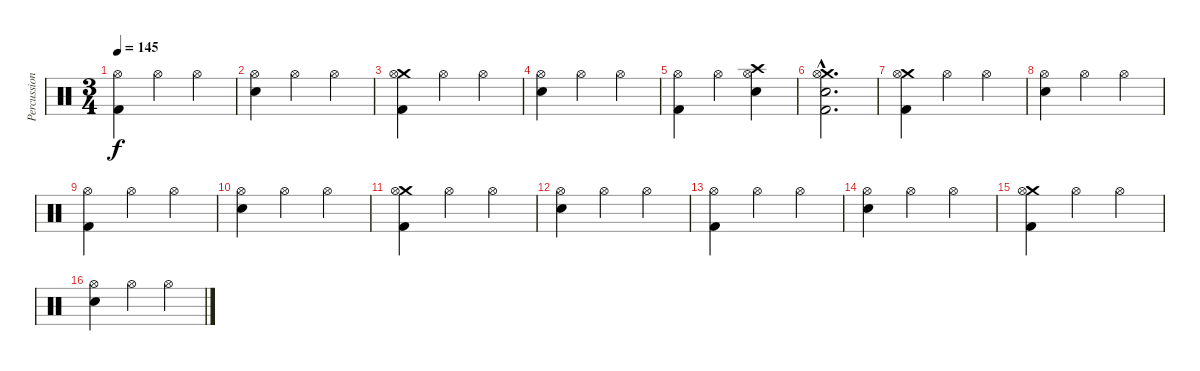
\track ("Percussion" "Percussion") {instrument percussion}
\staff {score}
\articulation defaults
\ts (3 4)
\tempo 145
\clef neutral
\ks c
("Hi-Hat (open)" "Kick (hit) 2").4{dy f} "Hi-Hat (open)".4 "Hi-Hat (open)".4 |
("Hi-Hat (open)" "Electric Snare (hit)").4 "Hi-Hat (open)".4 "Hi-Hat (open)".4 |
("Crash medium (hit)" "Hi-Hat (open)" "Kick (hit) 2").4 "Hi-Hat (open)".4 "Hi-Hat (open)".4 |
("Hi-Hat (open)" "Electric Snare (hit)").4 "Hi-Hat (open)".4 "Hi-Hat (open)".4 |
("Hi-Hat (open)" "Kick (hit) 2").4 "Hi-Hat (open)".4 ("Crash high (hit)" "Hi-Hat (open)" "Electric Snare (hit)").4 |
("Crash medium (hit)"{hac} "Hi-Hat (open)"{hac} "Electric Snare (hit)"{hac} "Kick (hit) 2"{hac}).2{d} |
("Crash medium (hit)" "Hi-Hat (open)" "Kick (hit) 2").4 "Hi-Hat (open)".4 "Hi-Hat (open)".4 |
("Hi-Hat (open)" "Electric Snare (hit)").4 "Hi-Hat (open)".4 "Hi-Hat (open)".4 |
("Hi-Hat (open)" "Kick (hit) 2").4 "Hi-Hat (open)".4 "Hi-Hat (open)".4 |
("Hi-Hat (open)" "Electric Snare (hit)").4 "Hi-Hat (open)".4 "Hi-Hat (open)".4 |
("Crash medium (hit)" "Hi-Hat (open)" "Kick (hit) 2").4 "Hi-Hat (open)".4 "Hi-Hat (open)".4 |
("Hi-Hat (open)" "Electric Snare (hit)").4 "Hi-Hat (open)".4 "Hi-Hat (open)".4 |
("Hi-Hat (open)" "Kick (hit) 2").4 "Hi-Hat (open)".4 "Hi-Hat (open)".4 |
("Hi-Hat (open)" "Electric Snare (hit)").4 "Hi-Hat (open)".4 "Hi-Hat (open)".4 |
("Crash medium (hit)" "Hi-Hat (open)" "Kick (hit) 2").4 "Hi-Hat (open)".4 "Hi-Hat (open)".4 |
("Hi-Hat (open)" "Electric Snare (hit)").4 "Hi-Hat (open)".4 "Hi-Hat (open)".4
